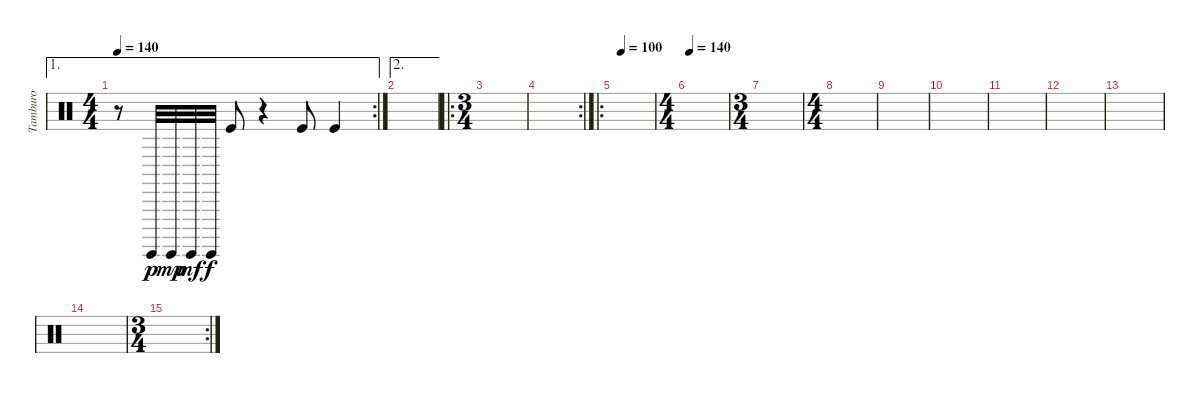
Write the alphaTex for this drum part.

\track ("Tamburo" "Tamburo") {instrument percussion}
\staff {score}
\articulation defaults
\ae 1
\rc 2
\ts (4 4)
\tempo 140
\clef neutral
\ks c
r.8{dy f} "Surdo (hit)".32{dy p} "Surdo (hit)".32{dy mp} "Surdo (hit)".32{dy mf} "Surdo (hit)".32{dy f} "Kick (hit)".8 r.4 "Kick (hit)".8 "Kick (hit)".4 |
\ae 2
|
\ro
\ts (3 4)
|
\rc 2
|
\ro
\tempo (100 0.16666666666666666)
|
\ts (4 4)
\tempo 140
|
\ts (3 4)
|
\ts (4 4)
|
|
|
|
|
|
|
\rc 2
\ts (3 4)
